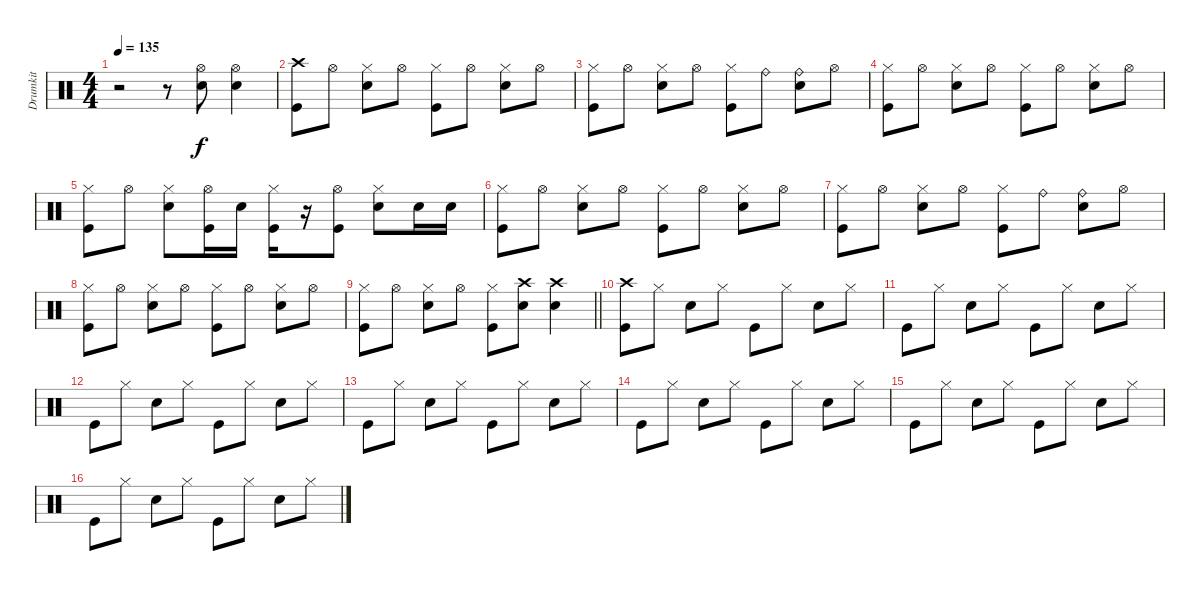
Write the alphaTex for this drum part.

\track ("Drumkit" "Drumkit") {instrument percussion}
\staff {score}
\articulation defaults
\ts (4 4)
\tempo 135
\clef neutral
\ks c
r.2{dy f} r.8 ("Hi-Hat (open)" "Snare (hit) 2").8 ("Snare (hit) 2" "Hi-Hat (open)").4 |
("Crash high (hit)" "Kick (hit)").8 "Hi-Hat (open)".8 ("Hi-Hat (closed)" "Snare (hit) 2").8 "Hi-Hat (open)".8 ("Kick (hit)" "Hi-Hat (closed)").8 "Hi-Hat (open)".8 ("Snare (hit) 2" "Hi-Hat (closed)").8 "Hi-Hat (open)".8 |
("Hi-Hat (closed)" "Kick (hit)").8 "Hi-Hat (open)".8 ("Snare (hit) 2" "Hi-Hat (closed)").8 "Hi-Hat (open)".8 ("Kick (hit)" "Hi-Hat (closed)").8 "Ride (bell)".8 ("Ride (bell)" "Snare (hit) 2").8 "Hi-Hat (open)".8 |
("Hi-Hat (closed)" "Kick (hit)").8 "Hi-Hat (open)".8 ("Snare (hit) 2" "Hi-Hat (closed)").8 "Hi-Hat (open)".8 ("Kick (hit)" "Hi-Hat (closed)").8 "Hi-Hat (open)".8 ("Snare (hit) 2" "Hi-Hat (closed)").8 "Hi-Hat (open)".8 |
("Hi-Hat (closed)" "Kick (hit)").8 "Hi-Hat (open)".8 ("Snare (hit) 2" "Hi-Hat (closed)").8 ("Kick (hit)" "Hi-Hat (open)").16 "Snare (hit) 2".16 ("Kick (hit)" "Hi-Hat (closed)").16 r.16 ("Kick (hit)" "Hi-Hat (open)").8 ("Snare (hit) 2" "Hi-Hat (closed)").8 "Snare (hit) 2".16 "Snare (hit) 2".16 |
("Hi-Hat (closed)" "Kick (hit)").8 "Hi-Hat (open)".8 ("Snare (hit) 2" "Hi-Hat (closed)").8 "Hi-Hat (open)".8 ("Kick (hit)" "Hi-Hat (closed)").8 "Hi-Hat (open)".8 ("Snare (hit) 2" "Hi-Hat (closed)").8 "Hi-Hat (open)".8 |
("Hi-Hat (closed)" "Kick (hit)").8 "Hi-Hat (open)".8 ("Snare (hit) 2" "Hi-Hat (closed)").8 "Hi-Hat (open)".8 ("Kick (hit)" "Hi-Hat (closed)").8 "Ride (bell)".8 ("Ride (bell)" "Snare (hit) 2").8 "Hi-Hat (open)".8 |
("Hi-Hat (closed)" "Kick (hit)").8 "Hi-Hat (open)".8 ("Snare (hit) 2" "Hi-Hat (closed)").8 "Hi-Hat (open)".8 ("Kick (hit)" "Hi-Hat (closed)").8 "Hi-Hat (open)".8 ("Snare (hit) 2" "Hi-Hat (closed)").8 "Hi-Hat (open)".8 |
\barLineRight lightlight
("Hi-Hat (closed)" "Kick (hit)").8 "Hi-Hat (open)".8 ("Snare (hit) 2" "Hi-Hat (closed)").8 "Hi-Hat (open)".8 ("Kick (hit)" "Hi-Hat (closed)").8 ("Crash high (hit)" "Snare (hit) 2").8 ("Crash high (hit)" "Snare (hit) 2").4 |
("Crash high (hit)" "Kick (hit)").8 "Hi-Hat (closed)".8 "Snare (hit) 2".8 "Hi-Hat (closed)".8 "Kick (hit)".8 "Hi-Hat (closed)".8 "Snare (hit) 2".8 "Hi-Hat (closed)".8 |
"Kick (hit)".8 "Hi-Hat (closed)".8 "Snare (hit) 2".8 "Hi-Hat (closed)".8 "Kick (hit)".8 "Hi-Hat (closed)".8 "Snare (hit) 2".8 "Hi-Hat (closed)".8 |
"Kick (hit)".8 "Hi-Hat (closed)".8 "Snare (hit) 2".8 "Hi-Hat (closed)".8 "Kick (hit)".8 "Hi-Hat (closed)".8 "Snare (hit) 2".8 "Hi-Hat (closed)".8 |
"Kick (hit)".8 "Hi-Hat (closed)".8 "Snare (hit) 2".8 "Hi-Hat (closed)".8 "Kick (hit)".8 "Hi-Hat (closed)".8 "Snare (hit) 2".8 "Hi-Hat (closed)".8 |
"Kick (hit)".8 "Hi-Hat (closed)".8 "Snare (hit) 2".8 "Hi-Hat (closed)".8 "Kick (hit)".8 "Hi-Hat (closed)".8 "Snare (hit) 2".8 "Hi-Hat (closed)".8 |
"Kick (hit)".8 "Hi-Hat (closed)".8 "Snare (hit) 2".8 "Hi-Hat (closed)".8 "Kick (hit)".8 "Hi-Hat (closed)".8 "Snare (hit) 2".8 "Hi-Hat (closed)".8 |
"Kick (hit)".8 "Hi-Hat (closed)".8 "Snare (hit) 2".8 "Hi-Hat (closed)".8 "Kick (hit)".8 "Hi-Hat (closed)".8 "Snare (hit) 2".8 "Hi-Hat (closed)".8
